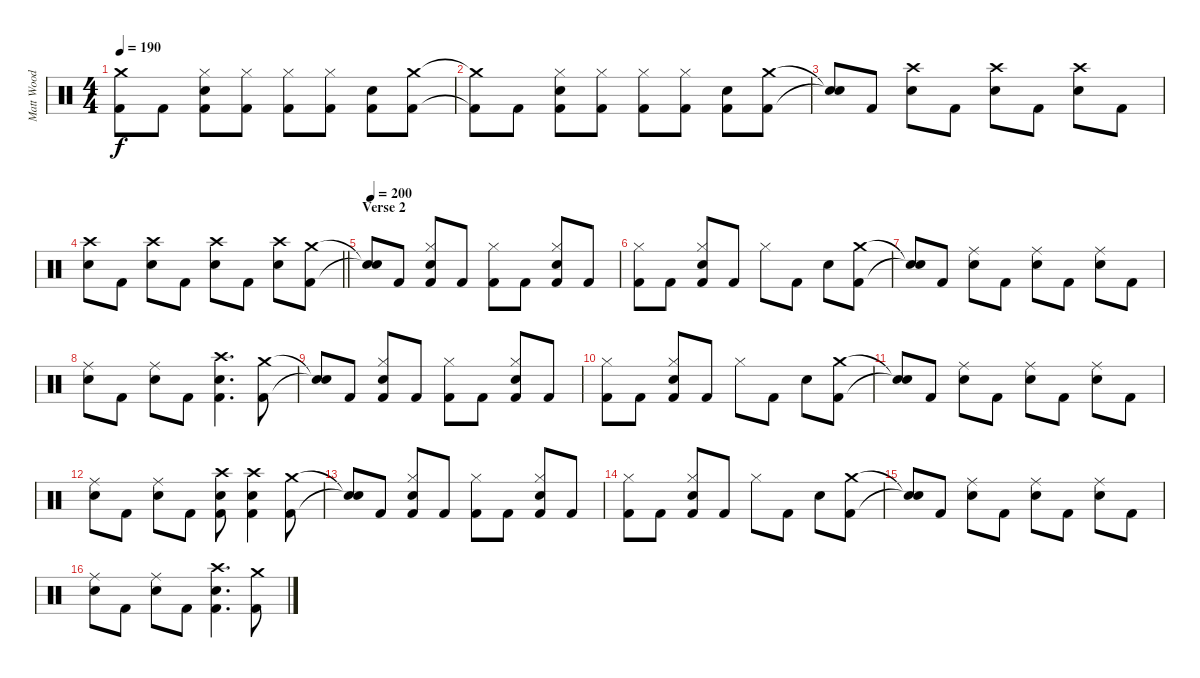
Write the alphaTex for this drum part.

\track ("Matt Wood" "Matt Wood") {instrument percussion}
\staff {score}
\articulation defaults
\ts (4 4)
\tempo 190
\clef neutral
\ks c
("Crash medium (hit)"{t} "Kick (hit) 2"{t}).8{dy f} "Kick (hit) 2".8 ("Hi-Hat (closed)" "Snare (hit) 2" "Kick (hit) 2").8 ("Hi-Hat (closed)" "Kick (hit) 2").8 ("Hi-Hat (closed)" "Kick (hit) 2").8 ("Hi-Hat (closed)" "Kick (hit) 2").8 ("Snare (hit) 2" "Kick (hit) 2").8 ("Crash medium (hit)" "Kick (hit) 2").8 |
("Crash medium (hit)"{t} "Kick (hit) 2"{t}).8 "Kick (hit) 2".8 ("Hi-Hat (closed)" "Snare (hit) 2" "Kick (hit) 2").8 ("Hi-Hat (closed)" "Kick (hit) 2").8 ("Hi-Hat (closed)" "Kick (hit) 2").8 ("Hi-Hat (closed)" "Kick (hit) 2").8 ("Snare (hit) 2" "Kick (hit) 2").8 ("Crash medium (hit)" "Kick (hit) 2").8 |
("Snare (hit)"{t} "Snare (hit)"{t}).8 "Kick (hit) 2".8 ("Crash high (hit)" "Snare (hit) 2").8 "Kick (hit) 2".8 ("Crash high (hit)" "Snare (hit) 2").8 "Kick (hit) 2".8 ("Crash high (hit)" "Snare (hit) 2").8 "Kick (hit) 2".8 |
\barLineRight lightlight
("Crash high (hit)" "Snare (hit) 2").8 "Kick (hit) 2".8 ("Crash high (hit)" "Snare (hit) 2").8 "Kick (hit) 2".8 ("Crash high (hit)" "Snare (hit) 2").8 "Kick (hit) 2".8 ("Crash high (hit)" "Snare (hit) 2").8 ("Crash medium (hit)" "Kick (hit) 2").8 |
\section ("" "Verse 2")
\tempo 200
("Snare (hit)"{t} "Snare (hit)"{t}).8 "Kick (hit) 2".8 ("Hi-Hat (closed)" "Snare (hit) 2" "Kick (hit) 2").8 "Kick (hit) 2".8 ("Hi-Hat (closed)" "Kick (hit) 2").8 "Kick (hit) 2".8 ("Hi-Hat (closed)" "Snare (hit) 2" "Kick (hit) 2").8 "Kick (hit) 2".8 |
("Hi-Hat (closed)" "Kick (hit) 2").8 "Kick (hit) 2".8 ("Hi-Hat (closed)" "Snare (hit) 2" "Kick (hit) 2").8 "Kick (hit) 2".8 "Hi-Hat (closed)".8 "Kick (hit) 2".8 "Snare (hit) 2".8 ("Crash medium (hit)" "Kick (hit) 2").8 |
("Snare (hit)"{t} "Snare (hit)"{t}).8 "Kick (hit) 2".8 ("Ride (middle)" "Snare (hit) 2").8 "Kick (hit) 2".8 ("Ride (middle)" "Snare (hit) 2").8 "Kick (hit) 2".8 ("Ride (middle)" "Snare (hit) 2").8 "Kick (hit) 2".8 |
("Ride (middle)" "Snare (hit) 2").8 "Kick (hit) 2".8 ("Ride (middle)" "Snare (hit) 2").8 "Kick (hit) 2".8 ("Crash high (hit)" "Snare (hit) 2" "Kick (hit) 2").4{d} ("Crash medium (hit)" "Kick (hit) 2").8 |
("Snare (hit)"{t} "Snare (hit)"{t}).8 "Kick (hit) 2".8 ("Hi-Hat (closed)" "Snare (hit) 2" "Kick (hit) 2").8 "Kick (hit) 2".8 ("Hi-Hat (closed)" "Kick (hit) 2").8 "Kick (hit) 2".8 ("Hi-Hat (closed)" "Snare (hit) 2" "Kick (hit) 2").8 "Kick (hit) 2".8 |
("Hi-Hat (closed)" "Kick (hit) 2").8 "Kick (hit) 2".8 ("Hi-Hat (closed)" "Snare (hit) 2" "Kick (hit) 2").8 "Kick (hit) 2".8 "Hi-Hat (closed)".8 "Kick (hit) 2".8 "Snare (hit) 2".8 ("Crash medium (hit)" "Kick (hit) 2").8 |
("Snare (hit)"{t} "Snare (hit)"{t}).8 "Kick (hit) 2".8 ("Ride (middle)" "Snare (hit) 2").8 "Kick (hit) 2".8 ("Ride (middle)" "Snare (hit) 2").8 "Kick (hit) 2".8 ("Ride (middle)" "Snare (hit) 2").8 "Kick (hit) 2".8 |
("Ride (middle)" "Snare (hit) 2").8 "Kick (hit) 2".8 ("Ride (middle)" "Snare (hit) 2").8 "Kick (hit) 2".8 ("Crash high (hit)" "Snare (hit) 2" "Kick (hit) 2").8 ("Crash high (hit)" "Snare (hit) 2" "Kick (hit) 2").4 ("Crash medium (hit)" "Kick (hit) 2").8 |
("Snare (hit)"{t} "Snare (hit)"{t}).8 "Kick (hit) 2".8 ("Hi-Hat (closed)" "Snare (hit) 2" "Kick (hit) 2").8 "Kick (hit) 2".8 ("Hi-Hat (closed)" "Kick (hit) 2").8 "Kick (hit) 2".8 ("Hi-Hat (closed)" "Snare (hit) 2" "Kick (hit) 2").8 "Kick (hit) 2".8 |
("Hi-Hat (closed)" "Kick (hit) 2").8 "Kick (hit) 2".8 ("Hi-Hat (closed)" "Snare (hit) 2" "Kick (hit) 2").8 "Kick (hit) 2".8 "Hi-Hat (closed)".8 "Kick (hit) 2".8 "Snare (hit) 2".8 ("Crash medium (hit)" "Kick (hit) 2").8 |
("Snare (hit)"{t} "Snare (hit)"{t}).8 "Kick (hit) 2".8 ("Ride (middle)" "Snare (hit) 2").8 "Kick (hit) 2".8 ("Ride (middle)" "Snare (hit) 2").8 "Kick (hit) 2".8 ("Ride (middle)" "Snare (hit) 2").8 "Kick (hit) 2".8 |
("Ride (middle)" "Snare (hit) 2").8 "Kick (hit) 2".8 ("Ride (middle)" "Snare (hit) 2").8 "Kick (hit) 2".8 ("Crash high (hit)" "Snare (hit) 2" "Kick (hit) 2").4{d} ("Crash medium (hit)" "Kick (hit) 2").8
